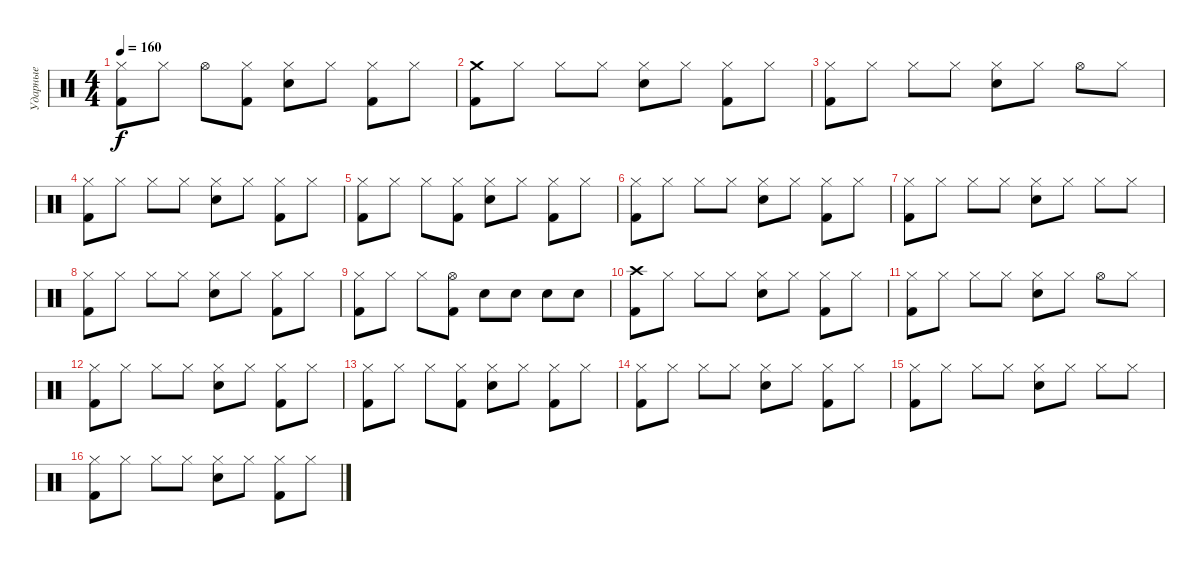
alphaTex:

\track ("Ударные" "Ударные") {instrument percussion}
\staff {score}
\articulation defaults
\ts (4 4)
\tempo 160
\clef neutral
\ks c
("Kick (hit) 2" "Hi-Hat (closed)").8{dy f} "Hi-Hat (closed)".8 "Hi-Hat (open)".8 ("Kick (hit) 2" "Hi-Hat (closed)").8 ("Electric Snare (hit)" "Hi-Hat (closed)").8 "Hi-Hat (closed)".8 ("Kick (hit) 2" "Hi-Hat (closed)").8 "Hi-Hat (closed)".8 |
("Kick (hit) 2" "Crash medium (hit)").8 "Hi-Hat (closed)".8 "Hi-Hat (closed)".8 "Hi-Hat (closed)".8 ("Electric Snare (hit)" "Hi-Hat (closed)").8 "Hi-Hat (closed)".8 ("Kick (hit) 2" "Hi-Hat (closed)").8 "Hi-Hat (closed)".8 |
("Kick (hit) 2" "Hi-Hat (closed)").8 "Hi-Hat (closed)".8 "Hi-Hat (closed)".8 "Hi-Hat (closed)".8 ("Electric Snare (hit)" "Hi-Hat (closed)").8 "Hi-Hat (closed)".8 "Hi-Hat (open)".8 "Hi-Hat (closed)".8 |
("Kick (hit) 2" "Hi-Hat (closed)").8 "Hi-Hat (closed)".8 "Hi-Hat (closed)".8 "Hi-Hat (closed)".8 ("Electric Snare (hit)" "Hi-Hat (closed)").8 "Hi-Hat (closed)".8 ("Kick (hit) 2" "Hi-Hat (closed)").8 "Hi-Hat (closed)".8 |
("Kick (hit) 2" "Hi-Hat (closed)").8 "Hi-Hat (closed)".8 "Hi-Hat (closed)".8 ("Kick (hit) 2" "Hi-Hat (closed)").8 ("Electric Snare (hit)" "Hi-Hat (closed)").8 "Hi-Hat (closed)".8 ("Kick (hit) 2" "Hi-Hat (closed)").8 "Hi-Hat (closed)".8 |
("Kick (hit) 2" "Hi-Hat (closed)").8 "Hi-Hat (closed)".8 "Hi-Hat (closed)".8 "Hi-Hat (closed)".8 ("Electric Snare (hit)" "Hi-Hat (closed)").8 "Hi-Hat (closed)".8 ("Kick (hit) 2" "Hi-Hat (closed)").8 "Hi-Hat (closed)".8 |
("Kick (hit) 2" "Hi-Hat (closed)").8 "Hi-Hat (closed)".8 "Hi-Hat (closed)".8 "Hi-Hat (closed)".8 ("Electric Snare (hit)" "Hi-Hat (closed)").8 "Hi-Hat (closed)".8 "Hi-Hat (closed)".8 "Hi-Hat (closed)".8 |
("Kick (hit) 2" "Hi-Hat (closed)").8 "Hi-Hat (closed)".8 "Hi-Hat (closed)".8 "Hi-Hat (closed)".8 ("Electric Snare (hit)" "Hi-Hat (closed)").8 "Hi-Hat (closed)".8 ("Kick (hit) 2" "Hi-Hat (closed)").8 "Hi-Hat (closed)".8 |
("Kick (hit) 2" "Hi-Hat (closed)").8 "Hi-Hat (closed)".8 "Hi-Hat (closed)".8 ("Kick (hit) 2" "Hi-Hat (open)").8 "Electric Snare (hit)".8 "Electric Snare (hit)".8 "Electric Snare (hit)".8 "Electric Snare (hit)".8 |
("Kick (hit) 2" "Crash high (hit)").8 "Hi-Hat (closed)".8 "Hi-Hat (closed)".8 "Hi-Hat (closed)".8 ("Electric Snare (hit)" "Hi-Hat (closed)").8 "Hi-Hat (closed)".8 ("Kick (hit) 2" "Hi-Hat (closed)").8 "Hi-Hat (closed)".8 |
("Kick (hit) 2" "Hi-Hat (closed)").8 "Hi-Hat (closed)".8 "Hi-Hat (closed)".8 "Hi-Hat (closed)".8 ("Electric Snare (hit)" "Hi-Hat (closed)").8 "Hi-Hat (closed)".8 "Hi-Hat (open)".8 "Hi-Hat (closed)".8 |
("Kick (hit) 2" "Hi-Hat (closed)").8 "Hi-Hat (closed)".8 "Hi-Hat (closed)".8 "Hi-Hat (closed)".8 ("Electric Snare (hit)" "Hi-Hat (closed)").8 "Hi-Hat (closed)".8 ("Kick (hit) 2" "Hi-Hat (closed)").8 "Hi-Hat (closed)".8 |
("Kick (hit) 2" "Hi-Hat (closed)").8 "Hi-Hat (closed)".8 "Hi-Hat (closed)".8 ("Kick (hit) 2" "Hi-Hat (closed)").8 ("Electric Snare (hit)" "Hi-Hat (closed)").8 "Hi-Hat (closed)".8 ("Kick (hit) 2" "Hi-Hat (closed)").8 "Hi-Hat (closed)".8 |
("Kick (hit) 2" "Hi-Hat (closed)").8 "Hi-Hat (closed)".8 "Hi-Hat (closed)".8 "Hi-Hat (closed)".8 ("Electric Snare (hit)" "Hi-Hat (closed)").8 "Hi-Hat (closed)".8 ("Kick (hit) 2" "Hi-Hat (closed)").8 "Hi-Hat (closed)".8 |
("Kick (hit) 2" "Hi-Hat (closed)").8 "Hi-Hat (closed)".8 "Hi-Hat (closed)".8 "Hi-Hat (closed)".8 ("Electric Snare (hit)" "Hi-Hat (closed)").8 "Hi-Hat (closed)".8 "Hi-Hat (closed)".8 "Hi-Hat (closed)".8 |
("Kick (hit) 2" "Hi-Hat (closed)").8 "Hi-Hat (closed)".8 "Hi-Hat (closed)".8 "Hi-Hat (closed)".8 ("Electric Snare (hit)" "Hi-Hat (closed)").8 "Hi-Hat (closed)".8 ("Kick (hit) 2" "Hi-Hat (closed)").8 "Hi-Hat (closed)".8
